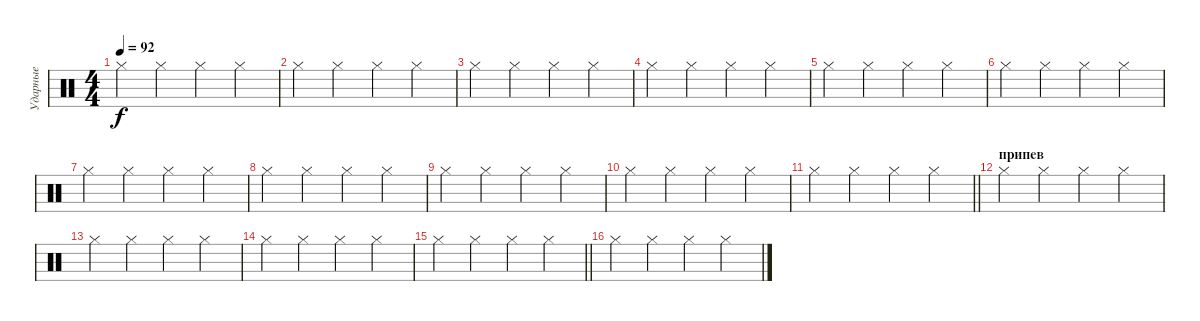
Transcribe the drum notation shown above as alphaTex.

\track ("Ударные" "Ударные") {instrument percussion}
\staff {score}
\articulation defaults
\ts (4 4)
\tempo 92
\clef neutral
\ks c "Hi-Hat (closed)".4{dy f} "Hi-Hat (closed)".4 "Hi-Hat (closed)".4 "Hi-Hat (closed)".4
|
"Hi-Hat (closed)".4 "Hi-Hat (closed)".4 "Hi-Hat (closed)".4 "Hi-Hat (closed)".4 |
"Hi-Hat (closed)".4 "Hi-Hat (closed)".4 "Hi-Hat (closed)".4 "Hi-Hat (closed)".4 |
"Hi-Hat (closed)".4 "Hi-Hat (closed)".4 "Hi-Hat (closed)".4 "Hi-Hat (closed)".4 |
"Hi-Hat (closed)".4 "Hi-Hat (closed)".4 "Hi-Hat (closed)".4 "Hi-Hat (closed)".4 |
"Hi-Hat (closed)".4 "Hi-Hat (closed)".4 "Hi-Hat (closed)".4 "Hi-Hat (closed)".4 |
"Hi-Hat (closed)".4 "Hi-Hat (closed)".4 "Hi-Hat (closed)".4 "Hi-Hat (closed)".4 |
"Hi-Hat (closed)".4 "Hi-Hat (closed)".4 "Hi-Hat (closed)".4 "Hi-Hat (closed)".4 |
"Hi-Hat (closed)".4 "Hi-Hat (closed)".4 "Hi-Hat (closed)".4 "Hi-Hat (closed)".4 |
"Hi-Hat (closed)".4 "Hi-Hat (closed)".4 "Hi-Hat (closed)".4 "Hi-Hat (closed)".4 |
\barLineRight lightlight "Hi-Hat (closed)".4 "Hi-Hat (closed)".4 "Hi-Hat (closed)".4 "Hi-Hat (closed)".4
|
\section ("" "припев")
"Hi-Hat (closed)".4 "Hi-Hat (closed)".4 "Hi-Hat (closed)".4 "Hi-Hat (closed)".4 |
"Hi-Hat (closed)".4 "Hi-Hat (closed)".4 "Hi-Hat (closed)".4 "Hi-Hat (closed)".4 |
"Hi-Hat (closed)".4 "Hi-Hat (closed)".4 "Hi-Hat (closed)".4 "Hi-Hat (closed)".4 |
\barLineRight lightlight "Hi-Hat (closed)".4 "Hi-Hat (closed)".4 "Hi-Hat (closed)".4 "Hi-Hat (closed)".4
|
"Hi-Hat (closed)".4 "Hi-Hat (closed)".4 "Hi-Hat (closed)".4 "Hi-Hat (closed)".4
